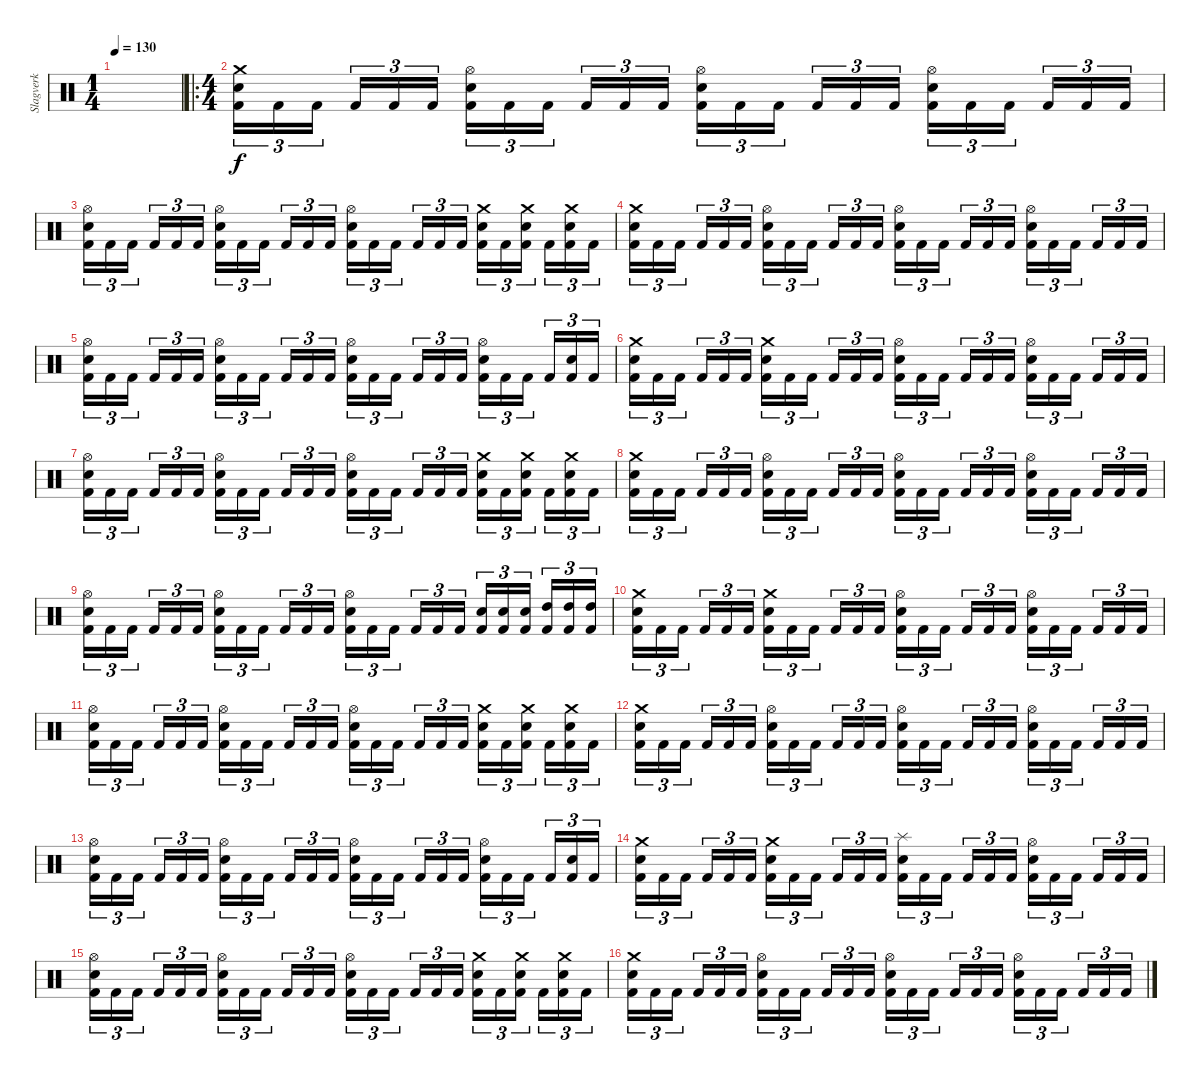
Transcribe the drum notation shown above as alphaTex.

\track ("Slagverk" "Slagverk") {instrument percussion}
\staff {score}
\articulation defaults
\ts (1 4)
\tempo 130
\clef neutral
\ks c
|
\ro
\ts (4 4)
("Kick (hit) 2" "Electric Snare (hit)" "Crash medium (hit)").16{tu (3 2)} "Kick (hit) 2".16{tu (3 2)} "Kick (hit) 2".16{tu (3 2)} "Kick (hit) 2".16{tu (3 2)} "Kick (hit) 2".16{tu (3 2)} "Kick (hit) 2".16{tu (3 2)} ("Kick (hit) 2" "Electric Snare (hit)" "Hi-Hat (open)").16{tu (3 2)} "Kick (hit) 2".16{tu (3 2)} "Kick (hit) 2".16{tu (3 2)} "Kick (hit) 2".16{tu (3 2)} "Kick (hit) 2".16{tu (3 2)} "Kick (hit) 2".16{tu (3 2)} ("Kick (hit) 2" "Electric Snare (hit)" "Hi-Hat (open)").16{tu (3 2)} "Kick (hit) 2".16{tu (3 2)} "Kick (hit) 2".16{tu (3 2)} "Kick (hit) 2".16{tu (3 2)} "Kick (hit) 2".16{tu (3 2)} "Kick (hit) 2".16{tu (3 2)} ("Kick (hit) 2" "Electric Snare (hit)" "Hi-Hat (open)").16{tu (3 2)} "Kick (hit) 2".16{tu (3 2)} "Kick (hit) 2".16{tu (3 2)} "Kick (hit) 2".16{tu (3 2)} "Kick (hit) 2".16{tu (3 2)} "Kick (hit) 2".16{tu (3 2)} |
("Kick (hit) 2" "Electric Snare (hit)" "Hi-Hat (open)").16{tu (3 2)} "Kick (hit) 2".16{tu (3 2)} "Kick (hit) 2".16{tu (3 2)} "Kick (hit) 2".16{tu (3 2)} "Kick (hit) 2".16{tu (3 2)} "Kick (hit) 2".16{tu (3 2)} ("Kick (hit) 2" "Electric Snare (hit)" "Hi-Hat (open)").16{tu (3 2)} "Kick (hit) 2".16{tu (3 2)} "Kick (hit) 2".16{tu (3 2)} "Kick (hit) 2".16{tu (3 2)} "Kick (hit) 2".16{tu (3 2)} "Kick (hit) 2".16{tu (3 2)} ("Kick (hit) 2" "Electric Snare (hit)" "Hi-Hat (open)").16{tu (3 2)} "Kick (hit) 2".16{tu (3 2)} "Kick (hit) 2".16{tu (3 2)} "Kick (hit) 2".16{tu (3 2)} "Kick (hit) 2".16{tu (3 2)} "Kick (hit) 2".16{tu (3 2)} ("Kick (hit) 2" "Electric Snare (hit)" "Crash medium (hit)").16{tu (3 2)} "Kick (hit) 2".16{tu (3 2)} ("Kick (hit) 2" "Electric Snare (hit)" "Crash medium (hit)").16{tu (3 2)} "Kick (hit) 2".16{tu (3 2)} ("Kick (hit) 2" "Electric Snare (hit)" "Crash medium (hit)").16{tu (3 2)} "Kick (hit) 2".16{tu (3 2)} |
("Kick (hit) 2" "Electric Snare (hit)" "Crash medium (hit)").16{tu (3 2)} "Kick (hit) 2".16{tu (3 2)} "Kick (hit) 2".16{tu (3 2)} "Kick (hit) 2".16{tu (3 2)} "Kick (hit) 2".16{tu (3 2)} "Kick (hit) 2".16{tu (3 2)} ("Kick (hit) 2" "Electric Snare (hit)" "Hi-Hat (open)").16{tu (3 2)} "Kick (hit) 2".16{tu (3 2)} "Kick (hit) 2".16{tu (3 2)} "Kick (hit) 2".16{tu (3 2)} "Kick (hit) 2".16{tu (3 2)} "Kick (hit) 2".16{tu (3 2)} ("Kick (hit) 2" "Electric Snare (hit)" "Hi-Hat (open)").16{tu (3 2)} "Kick (hit) 2".16{tu (3 2)} "Kick (hit) 2".16{tu (3 2)} "Kick (hit) 2".16{tu (3 2)} "Kick (hit) 2".16{tu (3 2)} "Kick (hit) 2".16{tu (3 2)} ("Kick (hit) 2" "Electric Snare (hit)" "Hi-Hat (open)").16{tu (3 2)} "Kick (hit) 2".16{tu (3 2)} "Kick (hit) 2".16{tu (3 2)} "Kick (hit) 2".16{tu (3 2)} "Kick (hit) 2".16{tu (3 2)} "Kick (hit) 2".16{tu (3 2)} |
("Kick (hit) 2" "Electric Snare (hit)" "Hi-Hat (open)").16{tu (3 2)} "Kick (hit) 2".16{tu (3 2)} "Kick (hit) 2".16{tu (3 2)} "Kick (hit) 2".16{tu (3 2)} "Kick (hit) 2".16{tu (3 2)} "Kick (hit) 2".16{tu (3 2)} ("Kick (hit) 2" "Electric Snare (hit)" "Hi-Hat (open)").16{tu (3 2)} "Kick (hit) 2".16{tu (3 2)} "Kick (hit) 2".16{tu (3 2)} "Kick (hit) 2".16{tu (3 2)} "Kick (hit) 2".16{tu (3 2)} "Kick (hit) 2".16{tu (3 2)} ("Kick (hit) 2" "Electric Snare (hit)" "Hi-Hat (open)").16{tu (3 2)} "Kick (hit) 2".16{tu (3 2)} "Kick (hit) 2".16{tu (3 2)} "Kick (hit) 2".16{tu (3 2)} "Kick (hit) 2".16{tu (3 2)} "Kick (hit) 2".16{tu (3 2)} ("Kick (hit) 2" "Electric Snare (hit)" "Hi-Hat (open)").16{tu (3 2)} "Kick (hit) 2".16{tu (3 2)} "Kick (hit) 2".16{tu (3 2)} "Kick (hit) 2".16{tu (3 2)} ("Kick (hit) 2" "Electric Snare (hit)").16{tu (3 2)} "Kick (hit) 2".16{tu (3 2)} |
("Kick (hit) 2" "Electric Snare (hit)" "Crash medium (hit)").16{tu (3 2)} "Kick (hit) 2".16{tu (3 2)} "Kick (hit) 2".16{tu (3 2)} "Kick (hit) 2".16{tu (3 2)} "Kick (hit) 2".16{tu (3 2)} "Kick (hit) 2".16{tu (3 2)} ("Kick (hit) 2" "Electric Snare (hit)" "Crash medium (hit)").16{tu (3 2)} "Kick (hit) 2".16{tu (3 2)} "Kick (hit) 2".16{tu (3 2)} "Kick (hit) 2".16{tu (3 2)} "Kick (hit) 2".16{tu (3 2)} "Kick (hit) 2".16{tu (3 2)} ("Kick (hit) 2" "Electric Snare (hit)" "Hi-Hat (open)").16{tu (3 2)} "Kick (hit) 2".16{tu (3 2)} "Kick (hit) 2".16{tu (3 2)} "Kick (hit) 2".16{tu (3 2)} "Kick (hit) 2".16{tu (3 2)} "Kick (hit) 2".16{tu (3 2)} ("Kick (hit) 2" "Electric Snare (hit)" "Hi-Hat (open)").16{tu (3 2)} "Kick (hit) 2".16{tu (3 2)} "Kick (hit) 2".16{tu (3 2)} "Kick (hit) 2".16{tu (3 2)} "Kick (hit) 2".16{tu (3 2)} "Kick (hit) 2".16{tu (3 2)} |
("Kick (hit) 2" "Electric Snare (hit)" "Hi-Hat (open)").16{tu (3 2)} "Kick (hit) 2".16{tu (3 2)} "Kick (hit) 2".16{tu (3 2)} "Kick (hit) 2".16{tu (3 2)} "Kick (hit) 2".16{tu (3 2)} "Kick (hit) 2".16{tu (3 2)} ("Kick (hit) 2" "Electric Snare (hit)" "Hi-Hat (open)").16{tu (3 2)} "Kick (hit) 2".16{tu (3 2)} "Kick (hit) 2".16{tu (3 2)} "Kick (hit) 2".16{tu (3 2)} "Kick (hit) 2".16{tu (3 2)} "Kick (hit) 2".16{tu (3 2)} ("Kick (hit) 2" "Electric Snare (hit)" "Hi-Hat (open)").16{tu (3 2)} "Kick (hit) 2".16{tu (3 2)} "Kick (hit) 2".16{tu (3 2)} "Kick (hit) 2".16{tu (3 2)} "Kick (hit) 2".16{tu (3 2)} "Kick (hit) 2".16{tu (3 2)} ("Kick (hit) 2" "Electric Snare (hit)" "Crash medium (hit)").16{tu (3 2)} "Kick (hit) 2".16{tu (3 2)} ("Kick (hit) 2" "Electric Snare (hit)" "Crash medium (hit)").16{tu (3 2)} "Kick (hit) 2".16{tu (3 2)} ("Kick (hit) 2" "Electric Snare (hit)" "Crash medium (hit)").16{tu (3 2)} "Kick (hit) 2".16{tu (3 2)} |
("Kick (hit) 2" "Electric Snare (hit)" "Crash medium (hit)").16{tu (3 2)} "Kick (hit) 2".16{tu (3 2)} "Kick (hit) 2".16{tu (3 2)} "Kick (hit) 2".16{tu (3 2)} "Kick (hit) 2".16{tu (3 2)} "Kick (hit) 2".16{tu (3 2)} ("Kick (hit) 2" "Electric Snare (hit)" "Hi-Hat (open)").16{tu (3 2)} "Kick (hit) 2".16{tu (3 2)} "Kick (hit) 2".16{tu (3 2)} "Kick (hit) 2".16{tu (3 2)} "Kick (hit) 2".16{tu (3 2)} "Kick (hit) 2".16{tu (3 2)} ("Kick (hit) 2" "Electric Snare (hit)" "Hi-Hat (open)").16{tu (3 2)} "Kick (hit) 2".16{tu (3 2)} "Kick (hit) 2".16{tu (3 2)} "Kick (hit) 2".16{tu (3 2)} "Kick (hit) 2".16{tu (3 2)} "Kick (hit) 2".16{tu (3 2)} ("Kick (hit) 2" "Electric Snare (hit)" "Hi-Hat (open)").16{tu (3 2)} "Kick (hit) 2".16{tu (3 2)} "Kick (hit) 2".16{tu (3 2)} "Kick (hit) 2".16{tu (3 2)} "Kick (hit) 2".16{tu (3 2)} "Kick (hit) 2".16{tu (3 2)} |
("Kick (hit) 2" "Electric Snare (hit)" "Hi-Hat (open)").16{tu (3 2)} "Kick (hit) 2".16{tu (3 2)} "Kick (hit) 2".16{tu (3 2)} "Kick (hit) 2".16{tu (3 2)} "Kick (hit) 2".16{tu (3 2)} "Kick (hit) 2".16{tu (3 2)} ("Kick (hit) 2" "Electric Snare (hit)" "Hi-Hat (open)").16{tu (3 2)} "Kick (hit) 2".16{tu (3 2)} "Kick (hit) 2".16{tu (3 2)} "Kick (hit) 2".16{tu (3 2)} "Kick (hit) 2".16{tu (3 2)} "Kick (hit) 2".16{tu (3 2)} ("Kick (hit) 2" "Electric Snare (hit)" "Hi-Hat (open)").16{tu (3 2)} "Kick (hit) 2".16{tu (3 2)} "Kick (hit) 2".16{tu (3 2)} "Kick (hit) 2".16{tu (3 2)} "Kick (hit) 2".16{tu (3 2)} "Kick (hit) 2".16{tu (3 2)} ("Kick (hit) 2" "Electric Snare (hit)").16{tu (3 2)} ("Kick (hit) 2" "Electric Snare (hit)").16{tu (3 2)} ("Kick (hit) 2" "Electric Snare (hit)").16{tu (3 2)} ("Kick (hit) 2" "High Tom (hit)").16{tu (3 2)} ("Kick (hit) 2" "High Tom (hit)").16{tu (3 2)} ("Kick (hit) 2" "High Tom (hit)").16{tu (3 2)} |
("Kick (hit) 2" "Electric Snare (hit)" "Crash medium (hit)").16{tu (3 2)} "Kick (hit) 2".16{tu (3 2)} "Kick (hit) 2".16{tu (3 2)} "Kick (hit) 2".16{tu (3 2)} "Kick (hit) 2".16{tu (3 2)} "Kick (hit) 2".16{tu (3 2)} ("Kick (hit) 2" "Electric Snare (hit)" "Crash medium (hit)").16{tu (3 2)} "Kick (hit) 2".16{tu (3 2)} "Kick (hit) 2".16{tu (3 2)} "Kick (hit) 2".16{tu (3 2)} "Kick (hit) 2".16{tu (3 2)} "Kick (hit) 2".16{tu (3 2)} ("Kick (hit) 2" "Electric Snare (hit)" "Hi-Hat (open)").16{tu (3 2)} "Kick (hit) 2".16{tu (3 2)} "Kick (hit) 2".16{tu (3 2)} "Kick (hit) 2".16{tu (3 2)} "Kick (hit) 2".16{tu (3 2)} "Kick (hit) 2".16{tu (3 2)} ("Kick (hit) 2" "Electric Snare (hit)" "Hi-Hat (open)").16{tu (3 2)} "Kick (hit) 2".16{tu (3 2)} "Kick (hit) 2".16{tu (3 2)} "Kick (hit) 2".16{tu (3 2)} "Kick (hit) 2".16{tu (3 2)} "Kick (hit) 2".16{tu (3 2)} |
("Kick (hit) 2" "Electric Snare (hit)" "Hi-Hat (open)").16{tu (3 2)} "Kick (hit) 2".16{tu (3 2)} "Kick (hit) 2".16{tu (3 2)} "Kick (hit) 2".16{tu (3 2)} "Kick (hit) 2".16{tu (3 2)} "Kick (hit) 2".16{tu (3 2)} ("Kick (hit) 2" "Electric Snare (hit)" "Hi-Hat (open)").16{tu (3 2)} "Kick (hit) 2".16{tu (3 2)} "Kick (hit) 2".16{tu (3 2)} "Kick (hit) 2".16{tu (3 2)} "Kick (hit) 2".16{tu (3 2)} "Kick (hit) 2".16{tu (3 2)} ("Kick (hit) 2" "Electric Snare (hit)" "Hi-Hat (open)").16{tu (3 2)} "Kick (hit) 2".16{tu (3 2)} "Kick (hit) 2".16{tu (3 2)} "Kick (hit) 2".16{tu (3 2)} "Kick (hit) 2".16{tu (3 2)} "Kick (hit) 2".16{tu (3 2)} ("Kick (hit) 2" "Electric Snare (hit)" "Crash medium (hit)").16{tu (3 2)} "Kick (hit) 2".16{tu (3 2)} ("Kick (hit) 2" "Electric Snare (hit)" "Crash medium (hit)").16{tu (3 2)} "Kick (hit) 2".16{tu (3 2)} ("Kick (hit) 2" "Electric Snare (hit)" "Crash medium (hit)").16{tu (3 2)} "Kick (hit) 2".16{tu (3 2)} |
("Kick (hit) 2" "Electric Snare (hit)" "Crash medium (hit)").16{tu (3 2)} "Kick (hit) 2".16{tu (3 2)} "Kick (hit) 2".16{tu (3 2)} "Kick (hit) 2".16{tu (3 2)} "Kick (hit) 2".16{tu (3 2)} "Kick (hit) 2".16{tu (3 2)} ("Kick (hit) 2" "Electric Snare (hit)" "Hi-Hat (open)").16{tu (3 2)} "Kick (hit) 2".16{tu (3 2)} "Kick (hit) 2".16{tu (3 2)} "Kick (hit) 2".16{tu (3 2)} "Kick (hit) 2".16{tu (3 2)} "Kick (hit) 2".16{tu (3 2)} ("Kick (hit) 2" "Electric Snare (hit)" "Hi-Hat (open)").16{tu (3 2)} "Kick (hit) 2".16{tu (3 2)} "Kick (hit) 2".16{tu (3 2)} "Kick (hit) 2".16{tu (3 2)} "Kick (hit) 2".16{tu (3 2)} "Kick (hit) 2".16{tu (3 2)} ("Kick (hit) 2" "Electric Snare (hit)" "Hi-Hat (open)").16{tu (3 2)} "Kick (hit) 2".16{tu (3 2)} "Kick (hit) 2".16{tu (3 2)} "Kick (hit) 2".16{tu (3 2)} "Kick (hit) 2".16{tu (3 2)} "Kick (hit) 2".16{tu (3 2)} |
("Kick (hit) 2" "Electric Snare (hit)" "Hi-Hat (open)").16{tu (3 2)} "Kick (hit) 2".16{tu (3 2)} "Kick (hit) 2".16{tu (3 2)} "Kick (hit) 2".16{tu (3 2)} "Kick (hit) 2".16{tu (3 2)} "Kick (hit) 2".16{tu (3 2)} ("Kick (hit) 2" "Electric Snare (hit)" "Hi-Hat (open)").16{tu (3 2)} "Kick (hit) 2".16{tu (3 2)} "Kick (hit) 2".16{tu (3 2)} "Kick (hit) 2".16{tu (3 2)} "Kick (hit) 2".16{tu (3 2)} "Kick (hit) 2".16{tu (3 2)} ("Kick (hit) 2" "Electric Snare (hit)" "Hi-Hat (open)").16{tu (3 2)} "Kick (hit) 2".16{tu (3 2)} "Kick (hit) 2".16{tu (3 2)} "Kick (hit) 2".16{tu (3 2)} "Kick (hit) 2".16{tu (3 2)} "Kick (hit) 2".16{tu (3 2)} ("Kick (hit) 2" "Electric Snare (hit)" "Hi-Hat (open)").16{tu (3 2)} "Kick (hit) 2".16{tu (3 2)} "Kick (hit) 2".16{tu (3 2)} "Kick (hit) 2".16{tu (3 2)} ("Kick (hit) 2" "Electric Snare (hit)").16{tu (3 2)} "Kick (hit) 2".16{tu (3 2)} |
("Kick (hit) 2" "Electric Snare (hit)" "Crash medium (hit)").16{tu (3 2)} "Kick (hit) 2".16{tu (3 2)} "Kick (hit) 2".16{tu (3 2)} "Kick (hit) 2".16{tu (3 2)} "Kick (hit) 2".16{tu (3 2)} "Kick (hit) 2".16{tu (3 2)} ("Kick (hit) 2" "Electric Snare (hit)" "Crash medium (hit)").16{tu (3 2)} "Kick (hit) 2".16{tu (3 2)} "Kick (hit) 2".16{tu (3 2)} "Kick (hit) 2".16{tu (3 2)} "Kick (hit) 2".16{tu (3 2)} "Kick (hit) 2".16{tu (3 2)} ("Kick (hit) 2" "Electric Snare (hit)" "Splash (hit)").16{tu (3 2)} "Kick (hit) 2".16{tu (3 2)} "Kick (hit) 2".16{tu (3 2)} "Kick (hit) 2".16{tu (3 2)} "Kick (hit) 2".16{tu (3 2)} "Kick (hit) 2".16{tu (3 2)} ("Kick (hit) 2" "Electric Snare (hit)" "Hi-Hat (open)").16{tu (3 2)} "Kick (hit) 2".16{tu (3 2)} "Kick (hit) 2".16{tu (3 2)} "Kick (hit) 2".16{tu (3 2)} "Kick (hit) 2".16{tu (3 2)} "Kick (hit) 2".16{tu (3 2)} |
("Kick (hit) 2" "Electric Snare (hit)" "Hi-Hat (open)").16{tu (3 2)} "Kick (hit) 2".16{tu (3 2)} "Kick (hit) 2".16{tu (3 2)} "Kick (hit) 2".16{tu (3 2)} "Kick (hit) 2".16{tu (3 2)} "Kick (hit) 2".16{tu (3 2)} ("Kick (hit) 2" "Electric Snare (hit)" "Hi-Hat (open)").16{tu (3 2)} "Kick (hit) 2".16{tu (3 2)} "Kick (hit) 2".16{tu (3 2)} "Kick (hit) 2".16{tu (3 2)} "Kick (hit) 2".16{tu (3 2)} "Kick (hit) 2".16{tu (3 2)} ("Kick (hit) 2" "Electric Snare (hit)" "Hi-Hat (open)").16{tu (3 2)} "Kick (hit) 2".16{tu (3 2)} "Kick (hit) 2".16{tu (3 2)} "Kick (hit) 2".16{tu (3 2)} "Kick (hit) 2".16{tu (3 2)} "Kick (hit) 2".16{tu (3 2)} ("Kick (hit) 2" "Electric Snare (hit)" "Crash medium (hit)").16{tu (3 2)} "Kick (hit) 2".16{tu (3 2)} ("Kick (hit) 2" "Electric Snare (hit)" "Crash medium (hit)").16{tu (3 2)} "Kick (hit) 2".16{tu (3 2)} ("Kick (hit) 2" "Electric Snare (hit)" "Crash medium (hit)").16{tu (3 2)} "Kick (hit) 2".16{tu (3 2)} |
("Kick (hit) 2" "Electric Snare (hit)" "Crash medium (hit)").16{tu (3 2)} "Kick (hit) 2".16{tu (3 2)} "Kick (hit) 2".16{tu (3 2)} "Kick (hit) 2".16{tu (3 2)} "Kick (hit) 2".16{tu (3 2)} "Kick (hit) 2".16{tu (3 2)} ("Kick (hit) 2" "Electric Snare (hit)" "Hi-Hat (open)").16{tu (3 2)} "Kick (hit) 2".16{tu (3 2)} "Kick (hit) 2".16{tu (3 2)} "Kick (hit) 2".16{tu (3 2)} "Kick (hit) 2".16{tu (3 2)} "Kick (hit) 2".16{tu (3 2)} ("Kick (hit) 2" "Electric Snare (hit)" "Hi-Hat (open)").16{tu (3 2)} "Kick (hit) 2".16{tu (3 2)} "Kick (hit) 2".16{tu (3 2)} "Kick (hit) 2".16{tu (3 2)} "Kick (hit) 2".16{tu (3 2)} "Kick (hit) 2".16{tu (3 2)} ("Kick (hit) 2" "Electric Snare (hit)" "Hi-Hat (open)").16{tu (3 2)} "Kick (hit) 2".16{tu (3 2)} "Kick (hit) 2".16{tu (3 2)} "Kick (hit) 2".16{tu (3 2)} "Kick (hit) 2".16{tu (3 2)} "Kick (hit) 2".16{tu (3 2)}
